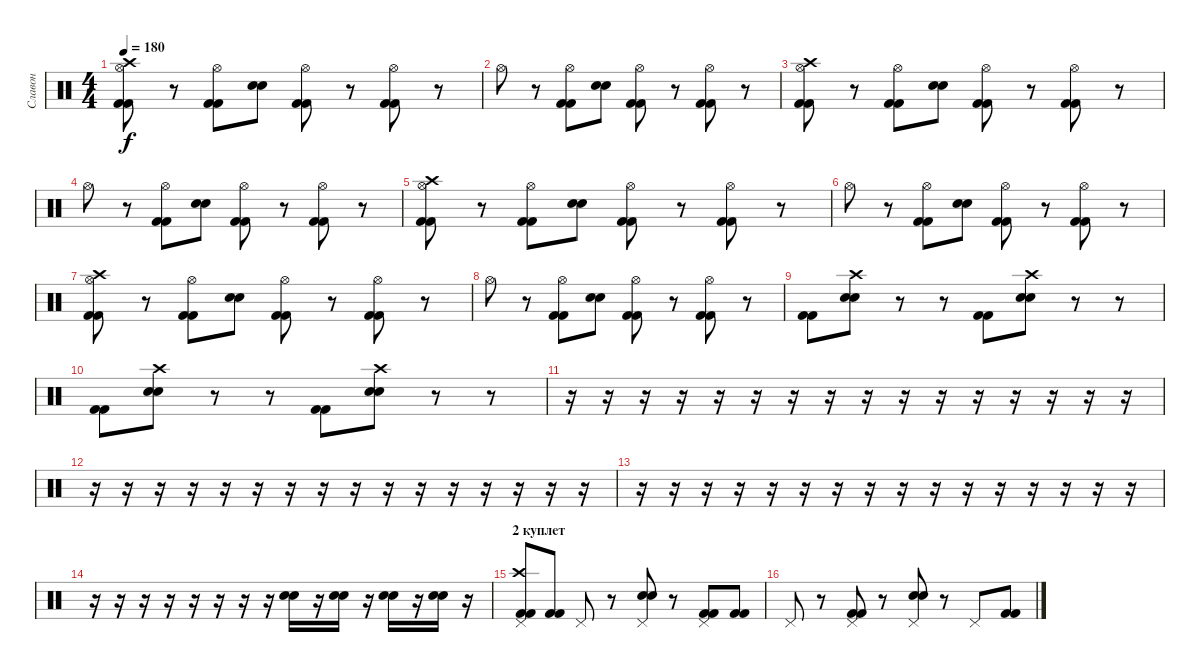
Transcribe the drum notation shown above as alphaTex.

\track ("Славон" "Славон") {instrument percussion}
\staff {score}
\articulation defaults
\ts (4 4)
\tempo 180
\clef neutral
\ks c
("Hi-Hat (open)" "Kick (hit) 2" "Kick (hit) 2" "Crash high (hit)").8{dy f} r.8 ("Hi-Hat (open)" "Kick (hit) 2" "Kick (hit) 2").8 ("Electric Snare (hit)" "Electric Snare (hit)").8 ("Hi-Hat (open)" "Kick (hit) 2" "Kick (hit) 2").8 r.8 ("Hi-Hat (open)" "Kick (hit) 2" "Kick (hit) 2").8 r.8 |
"Hi-Hat (open)".8 r.8 ("Hi-Hat (open)" "Kick (hit) 2" "Kick (hit) 2").8 ("Electric Snare (hit)" "Electric Snare (hit)").8 ("Hi-Hat (open)" "Kick (hit) 2" "Kick (hit) 2").8 r.8 ("Hi-Hat (open)" "Kick (hit) 2" "Kick (hit) 2").8 r.8 |
("Hi-Hat (open)" "Kick (hit) 2" "Kick (hit) 2" "Crash high (hit)").8 r.8 ("Hi-Hat (open)" "Kick (hit) 2" "Kick (hit) 2").8 ("Electric Snare (hit)" "Electric Snare (hit)").8 ("Hi-Hat (open)" "Kick (hit) 2" "Kick (hit) 2").8 r.8 ("Hi-Hat (open)" "Kick (hit) 2" "Kick (hit) 2").8 r.8 |
"Hi-Hat (open)".8 r.8 ("Hi-Hat (open)" "Kick (hit) 2" "Kick (hit) 2").8 ("Electric Snare (hit)" "Electric Snare (hit)").8 ("Hi-Hat (open)" "Kick (hit) 2" "Kick (hit) 2").8 r.8 ("Hi-Hat (open)" "Kick (hit) 2" "Kick (hit) 2").8 r.8 |
("Hi-Hat (open)" "Kick (hit) 2" "Kick (hit) 2" "Crash high (hit)").8 r.8 ("Hi-Hat (open)" "Kick (hit) 2" "Kick (hit) 2").8 ("Electric Snare (hit)" "Electric Snare (hit)").8 ("Hi-Hat (open)" "Kick (hit) 2" "Kick (hit) 2").8 r.8 ("Hi-Hat (open)" "Kick (hit) 2" "Kick (hit) 2").8 r.8 |
"Hi-Hat (open)".8 r.8 ("Hi-Hat (open)" "Kick (hit) 2" "Kick (hit) 2").8 ("Electric Snare (hit)" "Electric Snare (hit)").8 ("Hi-Hat (open)" "Kick (hit) 2" "Kick (hit) 2").8 r.8 ("Hi-Hat (open)" "Kick (hit) 2" "Kick (hit) 2").8 r.8 |
("Hi-Hat (open)" "Kick (hit) 2" "Kick (hit) 2" "Crash high (hit)").8 r.8 ("Hi-Hat (open)" "Kick (hit) 2" "Kick (hit) 2").8 ("Electric Snare (hit)" "Electric Snare (hit)").8 ("Hi-Hat (open)" "Kick (hit) 2" "Kick (hit) 2").8 r.8 ("Hi-Hat (open)" "Kick (hit) 2" "Kick (hit) 2").8 r.8 |
"Hi-Hat (open)".8 r.8 ("Hi-Hat (open)" "Kick (hit) 2" "Kick (hit) 2").8 ("Electric Snare (hit)" "Electric Snare (hit)").8 ("Hi-Hat (open)" "Kick (hit) 2" "Kick (hit) 2").8 r.8 ("Hi-Hat (open)" "Kick (hit) 2" "Kick (hit) 2").8 r.8 |
("Kick (hit) 2" "Kick (hit) 2").8 ("Crash high (hit)" "Electric Snare (hit)" "Electric Snare (hit)").8 r.8 r.8 ("Kick (hit) 2" "Kick (hit) 2").8 ("Crash high (hit)" "Electric Snare (hit)" "Electric Snare (hit)").8 r.8 r.8 |
("Kick (hit) 2" "Kick (hit) 2").8 ("Crash high (hit)" "Electric Snare (hit)" "Electric Snare (hit)").8 r.8 r.8 ("Kick (hit) 2" "Kick (hit) 2").8 ("Crash high (hit)" "Electric Snare (hit)" "Electric Snare (hit)").8 r.8 r.8 |
r.16 r.16 r.16 r.16 r.16 r.16 r.16 r.16 r.16 r.16 r.16 r.16 r.16 r.16 r.16 r.16 |
r.16 r.16 r.16 r.16 r.16 r.16 r.16 r.16 r.16 r.16 r.16 r.16 r.16 r.16 r.16 r.16 |
r.16 r.16 r.16 r.16 r.16 r.16 r.16 r.16 r.16 r.16 r.16 r.16 r.16 r.16 r.16 r.16 |
r.16 r.16 r.16 r.16 r.16 r.16 r.16 r.16 ("Electric Snare (hit)" "Electric Snare (hit)").16 r.16 ("Electric Snare (hit)" "Electric Snare (hit)").16 r.16 ("Electric Snare (hit)" "Electric Snare (hit)").16 r.16 ("Electric Snare (hit)" "Electric Snare (hit)").16 r.16 |
\section ("" "2 куплет")
("Pedal Hi-Hat (hit)" "Kick (hit) 2" "Kick (hit) 2" "Crash high (hit)").8 ("Kick (hit) 2" "Kick (hit) 2").8 "Pedal Hi-Hat (hit)".8 r.8 ("Pedal Hi-Hat (hit)" "Electric Snare (hit)" "Electric Snare (hit)").8 r.8 ("Pedal Hi-Hat (hit)" "Kick (hit) 2" "Kick (hit) 2").8 ("Kick (hit) 2" "Kick (hit) 2").8 |
"Pedal Hi-Hat (hit)".8 r.8 ("Pedal Hi-Hat (hit)" "Kick (hit) 2" "Kick (hit) 2").8 r.8 ("Pedal Hi-Hat (hit)" "Electric Snare (hit)" "Electric Snare (hit)").8 r.8 "Pedal Hi-Hat (hit)".8 ("Kick (hit) 2" "Kick (hit) 2").8
